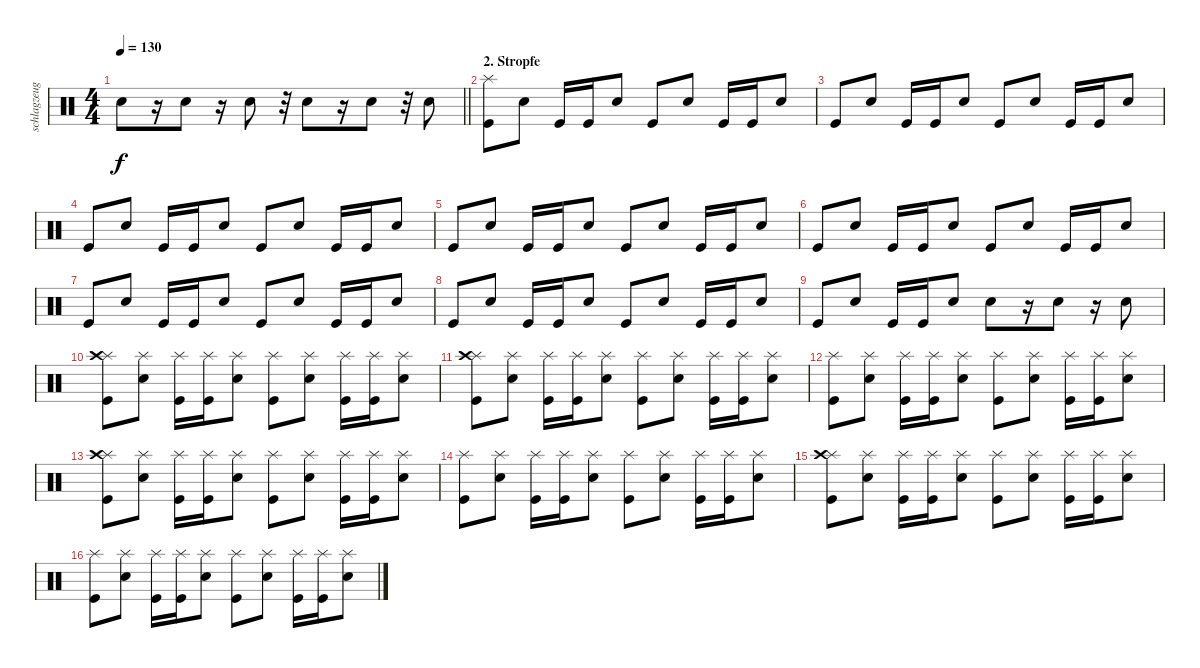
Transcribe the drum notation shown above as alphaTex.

\track ("schlagzeug" "schlagzeug") {instrument percussion}
\staff {score}
\articulation defaults
\ts (4 4)
\tempo 130
\clef neutral
\barLineRight lightlight
\ks c "Snare (hit) 2".8{dy f}
r.16 "Snare (hit) 2".8 r.16 "Snare (hit) 2".8 r.32 "Snare (hit) 2".8 r.16 "Snare (hit) 2".8 r.32 "Snare (hit) 2".8 |
\section ("" "2. Stropfe")
("Kick (hit)" "Splash (hit)").8 "Snare (hit) 2".8 "Kick (hit)".16 "Kick (hit)".16 "Snare (hit) 2".8 "Kick (hit)".8 "Snare (hit) 2".8 "Kick (hit)".16 "Kick (hit)".16 "Snare (hit) 2".8 |
"Kick (hit)".8 "Snare (hit) 2".8 "Kick (hit)".16 "Kick (hit)".16 "Snare (hit) 2".8 "Kick (hit)".8 "Snare (hit) 2".8 "Kick (hit)".16 "Kick (hit)".16 "Snare (hit) 2".8 |
"Kick (hit)".8 "Snare (hit) 2".8 "Kick (hit)".16 "Kick (hit)".16 "Snare (hit) 2".8 "Kick (hit)".8 "Snare (hit) 2".8 "Kick (hit)".16 "Kick (hit)".16 "Snare (hit) 2".8 |
"Kick (hit)".8 "Snare (hit) 2".8 "Kick (hit)".16 "Kick (hit)".16 "Snare (hit) 2".8 "Kick (hit)".8 "Snare (hit) 2".8 "Kick (hit)".16 "Kick (hit)".16 "Snare (hit) 2".8 |
"Kick (hit)".8 "Snare (hit) 2".8 "Kick (hit)".16 "Kick (hit)".16 "Snare (hit) 2".8 "Kick (hit)".8 "Snare (hit) 2".8 "Kick (hit)".16 "Kick (hit)".16 "Snare (hit) 2".8 |
"Kick (hit)".8 "Snare (hit) 2".8 "Kick (hit)".16 "Kick (hit)".16 "Snare (hit) 2".8 "Kick (hit)".8 "Snare (hit) 2".8 "Kick (hit)".16 "Kick (hit)".16 "Snare (hit) 2".8 |
"Kick (hit)".8 "Snare (hit) 2".8 "Kick (hit)".16 "Kick (hit)".16 "Snare (hit) 2".8 "Kick (hit)".8 "Snare (hit) 2".8 "Kick (hit)".16 "Kick (hit)".16 "Snare (hit) 2".8 |
"Kick (hit)".8 "Snare (hit) 2".8 "Kick (hit)".16 "Kick (hit)".16 "Snare (hit) 2".8 "Snare (hit) 2".8 r.16 "Snare (hit) 2".8 r.16 "Snare (hit) 2".8 |
("Kick (hit)" "Splash (hit)" "Crash high (hit)").8 ("Snare (hit) 2" "Splash (hit)").8 ("Kick (hit)" "Splash (hit)").16 ("Kick (hit)" "Splash (hit)").16 ("Snare (hit) 2" "Splash (hit)").8 ("Kick (hit)" "Splash (hit)").8 ("Snare (hit) 2" "Splash (hit)").8 ("Kick (hit)" "Splash (hit)").16 ("Kick (hit)" "Splash (hit)").16 ("Snare (hit) 2" "Splash (hit)").8 |
("Kick (hit)" "Splash (hit)" "Crash high (hit)").8 ("Snare (hit) 2" "Splash (hit)").8 ("Kick (hit)" "Splash (hit)").16 ("Kick (hit)" "Splash (hit)").16 ("Snare (hit) 2" "Splash (hit)").8 ("Kick (hit)" "Splash (hit)").8 ("Snare (hit) 2" "Splash (hit)").8 ("Kick (hit)" "Splash (hit)").16 ("Kick (hit)" "Splash (hit)").16 ("Snare (hit) 2" "Splash (hit)").8 |
("Kick (hit)" "Splash (hit)").8 ("Snare (hit) 2" "Splash (hit)").8 ("Kick (hit)" "Splash (hit)").16 ("Kick (hit)" "Splash (hit)").16 ("Snare (hit) 2" "Splash (hit)").8 ("Kick (hit)" "Splash (hit)").8 ("Snare (hit) 2" "Splash (hit)").8 ("Kick (hit)" "Splash (hit)").16 ("Kick (hit)" "Splash (hit)").16 ("Snare (hit) 2" "Splash (hit)").8 |
("Kick (hit)" "Splash (hit)" "Crash high (hit)").8 ("Snare (hit) 2" "Splash (hit)").8 ("Kick (hit)" "Splash (hit)").16 ("Kick (hit)" "Splash (hit)").16 ("Snare (hit) 2" "Splash (hit)").8 ("Kick (hit)" "Splash (hit)").8 ("Snare (hit) 2" "Splash (hit)").8 ("Kick (hit)" "Splash (hit)").16 ("Kick (hit)" "Splash (hit)").16 ("Snare (hit) 2" "Splash (hit)").8 |
("Kick (hit)" "Splash (hit)").8 ("Snare (hit) 2" "Splash (hit)").8 ("Kick (hit)" "Splash (hit)").16 ("Kick (hit)" "Splash (hit)").16 ("Snare (hit) 2" "Splash (hit)").8 ("Kick (hit)" "Splash (hit)").8 ("Snare (hit) 2" "Splash (hit)").8 ("Kick (hit)" "Splash (hit)").16 ("Kick (hit)" "Splash (hit)").16 ("Snare (hit) 2" "Splash (hit)").8 |
("Kick (hit)" "Splash (hit)" "Crash high (hit)").8 ("Snare (hit) 2" "Splash (hit)").8 ("Kick (hit)" "Splash (hit)").16 ("Kick (hit)" "Splash (hit)").16 ("Snare (hit) 2" "Splash (hit)").8 ("Kick (hit)" "Splash (hit)").8 ("Snare (hit) 2" "Splash (hit)").8 ("Kick (hit)" "Splash (hit)").16 ("Kick (hit)" "Splash (hit)").16 ("Snare (hit) 2" "Splash (hit)").8 |
("Kick (hit)" "Splash (hit)").8 ("Snare (hit) 2" "Splash (hit)").8 ("Kick (hit)" "Splash (hit)").16 ("Kick (hit)" "Splash (hit)").16 ("Snare (hit) 2" "Splash (hit)").8 ("Kick (hit)" "Splash (hit)").8 ("Snare (hit) 2" "Splash (hit)").8 ("Kick (hit)" "Splash (hit)").16 ("Kick (hit)" "Splash (hit)").16 ("Snare (hit) 2" "Splash (hit)").8
